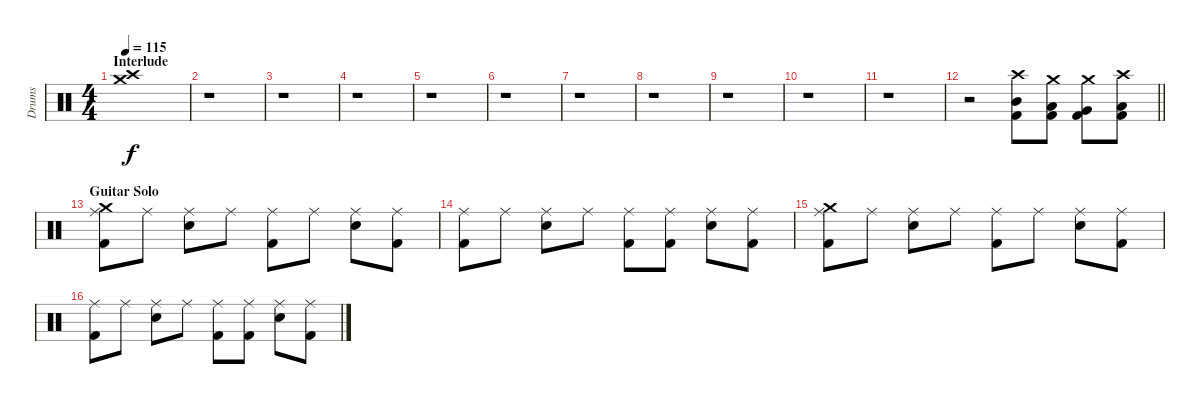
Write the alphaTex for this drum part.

\track ("Drums" "Drums") {instrument percussion}
\staff {score}
\articulation defaults
\ts (4 4)
\section ("" "Interlude")
\tempo 115
\clef neutral
\ks c
("Crash medium (hit)" "Crash high (hit)").1{dy f} |
r.1 |
r.1 |
r.1 |
r.1 |
r.1 |
r.1 |
r.1 |
r.1 |
r.1 |
r.1 |
\barLineRight lightlight
r.2 ("Crash high (hit)" "Mid Tom (hit)" "Kick (hit) 2").8 ("Crash medium (hit)" "Low Tom (hit)" "Kick (hit) 2").8 ("Crash medium (hit)" "Very Low Tom (hit)" "Kick (hit) 2").8 ("Crash high (hit)" "Low Floor Tom (hit)" "Kick (hit) 2").8 |
\section ("" "Guitar Solo")
("Crash medium (hit)" "Ride (middle)" "Kick (hit) 2").8 "Ride (middle)".8 ("Ride (middle)" "Snare (hit) 2").8 "Ride (middle)".8 ("Ride (middle)" "Kick (hit) 2").8 "Ride (middle)".8 ("Ride (middle)" "Snare (hit) 2").8 ("Ride (middle)" "Kick (hit) 2").8 |
("Ride (middle)" "Kick (hit) 2").8 "Ride (middle)".8 ("Ride (middle)" "Snare (hit) 2").8 "Ride (middle)".8 ("Ride (middle)" "Kick (hit) 2").8 ("Ride (middle)" "Kick (hit) 2").8 ("Ride (middle)" "Snare (hit) 2").8 ("Ride (middle)" "Kick (hit) 2").8 |
("Crash medium (hit)" "Ride (middle)" "Kick (hit) 2").8 "Ride (middle)".8 ("Ride (middle)" "Snare (hit) 2").8 "Ride (middle)".8 ("Ride (middle)" "Kick (hit) 2").8 "Ride (middle)".8 ("Ride (middle)" "Snare (hit) 2").8 ("Ride (middle)" "Kick (hit) 2").8 |
("Ride (middle)" "Kick (hit) 2").8 "Ride (middle)".8 ("Ride (middle)" "Snare (hit) 2").8 "Ride (middle)".8 ("Ride (middle)" "Kick (hit) 2").8 ("Ride (middle)" "Kick (hit) 2").8 ("Ride (middle)" "Snare (hit) 2").8 ("Ride (middle)" "Kick (hit) 2").8
